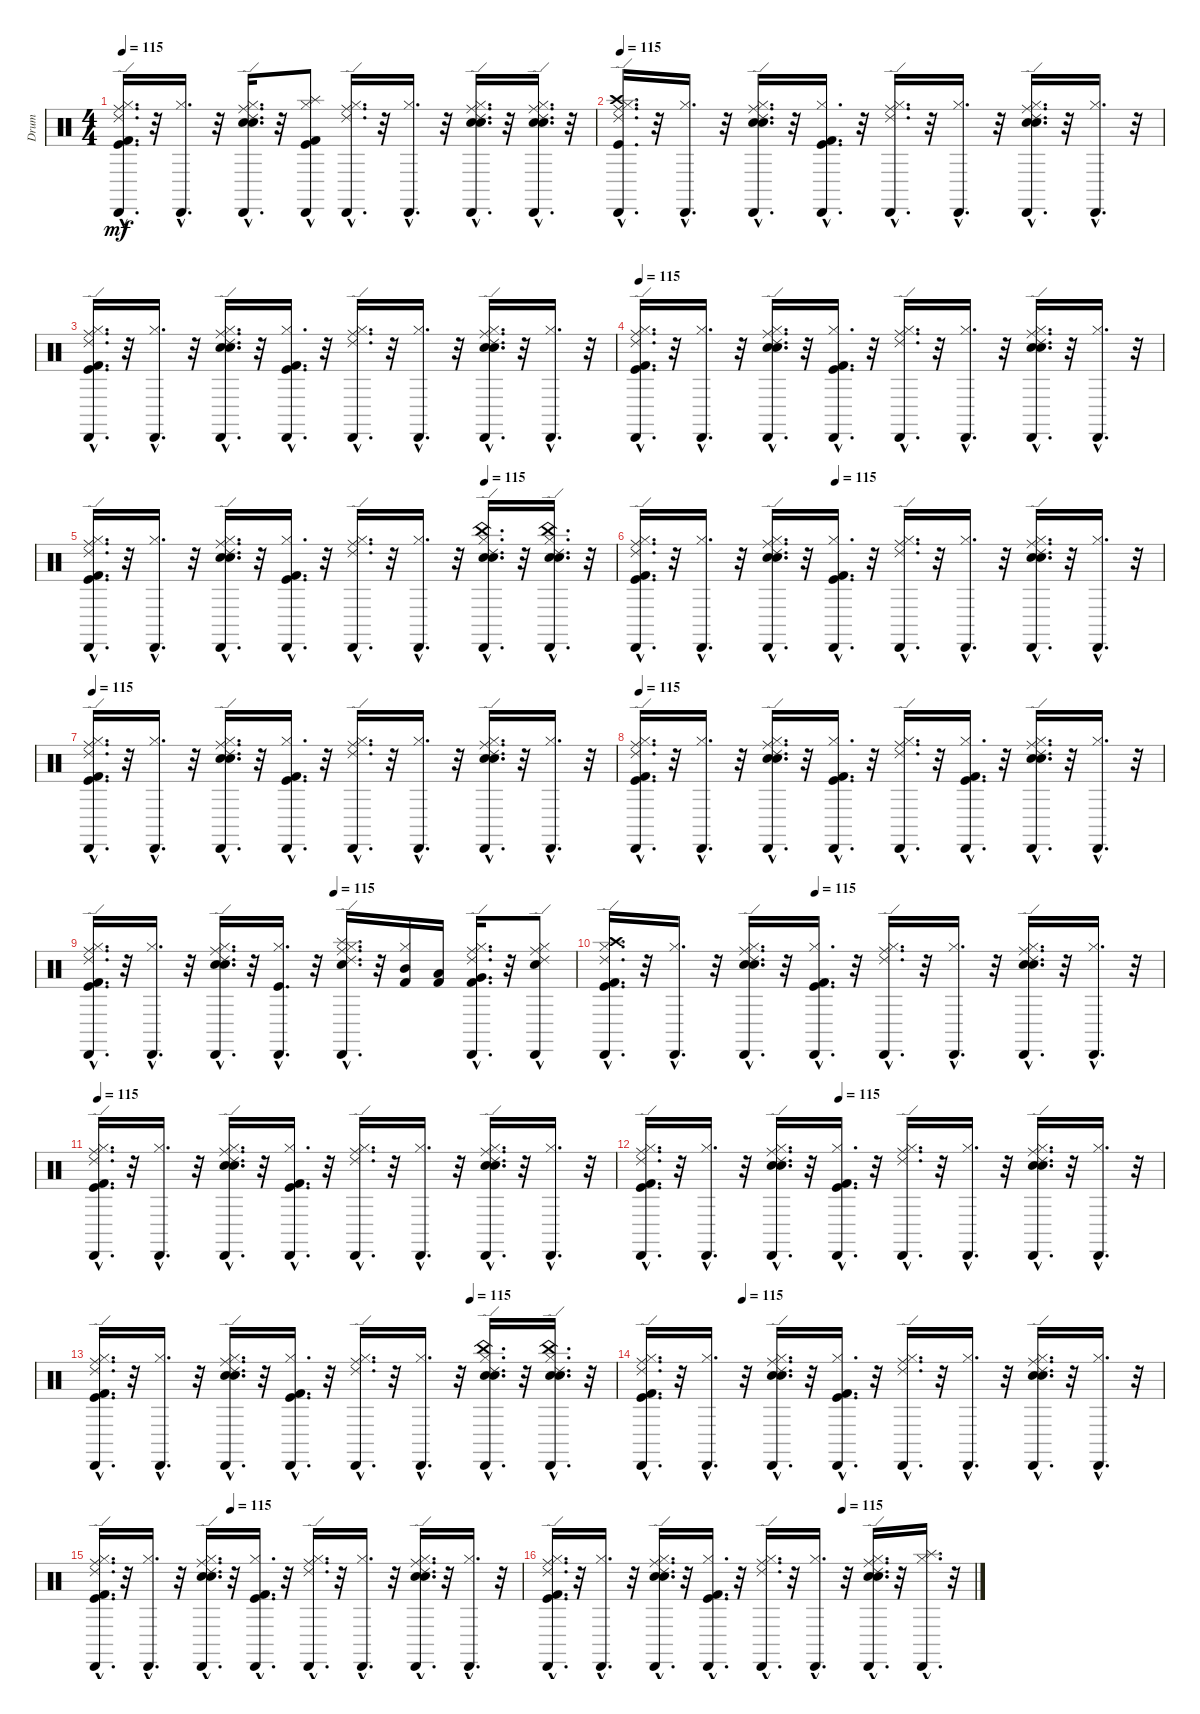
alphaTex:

\track ("Drum" "Drum") {instrument percussion}
\staff {score}
\articulation defaults
\ts (4 4)
\tempo 115
\clef neutral
\ks c
("Cabasa (hit)"{hac} "Kick (hit) 2"{hac} "Kick (hit)"{hac} "Hi-Hat (closed)"{hac} "Ride (edge) 2"{hac} "Ride (middle)"{hac}).16{d dy mf} r.32 ("Cabasa (hit)"{hac} "Hi-Hat (closed)"{hac}).16{d} r.32 ("Cabasa (hit)"{hac} "Electric Snare (hit)"{hac} "Snare (hit) 2"{hac} "Hi-Hat (closed)"{hac} "Ride (edge) 2"{hac} "Ride (middle)"{hac}).16{d} r.32 ("Cabasa (hit)"{hac} "Kick (hit) 2" "Kick (hit)"{hac} "Hi-Hat (closed)"{hac} "Splash (hit)").8 ("Cabasa (hit)"{hac} "Hi-Hat (closed)"{hac} "Ride (edge) 2"{hac} "Ride (middle)"{hac}).16{d} r.32 ("Cabasa (hit)"{hac} "Hi-Hat (closed)"{hac}).16{d} r.32 ("Cabasa (hit)"{hac} "Hi-Hat (closed)"{hac} "Electric Snare (hit)"{hac} "Snare (hit) 2"{hac} "Ride (edge) 2"{hac} "Ride (middle)"{hac}).16{d} r.32 ("Cabasa (hit)"{hac} "Hi-Hat (closed)"{hac} "Ride (middle)"{hac} "Ride (edge) 2"{hac} "Electric Snare (hit)"{hac} "Snare (hit) 2"{hac}).16{d} r.32 |
\tempo 115
("Crash high (hit)"{hac} "Kick (hit)"{hac} "Hi-Hat (closed)"{hac} "Ride (middle)"{hac} "Ride (edge) 2"{hac} "Cabasa (hit)"{hac}).16{d} r.32 ("Hi-Hat (closed)"{hac} "Cabasa (hit)"{hac}).16{d} r.32 ("Ride (middle)"{hac} "Ride (edge) 2"{hac} "Hi-Hat (closed)"{hac} "Snare (hit) 2"{hac} "Cabasa (hit)"{hac} "Electric Snare (hit)"{hac}).16{d} r.32 ("Hi-Hat (closed)"{hac} "Kick (hit) 2"{hac} "Cabasa (hit)"{hac} "Kick (hit)"{hac}).16{d} r.32 ("Ride (middle)"{hac} "Ride (edge) 2"{hac} "Hi-Hat (closed)"{hac} "Cabasa (hit)"{hac}).16{d} r.32 ("Hi-Hat (closed)"{hac} "Cabasa (hit)"{hac}).16{d} r.32 ("Snare (hit) 2"{hac} "Electric Snare (hit)"{hac} "Ride (middle)"{hac} "Ride (edge) 2"{hac} "Hi-Hat (closed)"{hac} "Cabasa (hit)"{hac}).16{d} r.32 ("Hi-Hat (closed)"{hac} "Cabasa (hit)"{hac}).16{d} r.32 |
("Cabasa (hit)"{hac} "Kick (hit)"{hac} "Ride (edge) 2"{hac} "Kick (hit) 2"{hac} "Ride (middle)"{hac} "Hi-Hat (closed)"{hac}).16{d} r.32 ("Hi-Hat (closed)"{hac} "Cabasa (hit)"{hac}).16{d} r.32 ("Ride (edge) 2"{hac} "Cabasa (hit)"{hac} "Ride (middle)"{hac} "Electric Snare (hit)"{hac} "Snare (hit) 2"{hac} "Hi-Hat (closed)"{hac}).16{d} r.32 ("Hi-Hat (closed)"{hac} "Kick (hit) 2"{hac} "Kick (hit)"{hac} "Cabasa (hit)"{hac}).16{d} r.32 ("Cabasa (hit)"{hac} "Hi-Hat (closed)"{hac} "Ride (edge) 2"{hac} "Ride (middle)"{hac}).16{d} r.32 ("Cabasa (hit)"{hac} "Hi-Hat (closed)"{hac}).16{d} r.32 ("Snare (hit) 2"{hac} "Ride (edge) 2"{hac} "Hi-Hat (closed)"{hac} "Ride (middle)"{hac} "Electric Snare (hit)"{hac} "Cabasa (hit)"{hac}).16{d} r.32 ("Hi-Hat (closed)"{hac} "Cabasa (hit)"{hac}).16{d} r.32 |
\tempo 115
("Kick (hit) 2"{hac} "Hi-Hat (closed)"{hac} "Ride (middle)"{hac} "Cabasa (hit)"{hac} "Kick (hit)"{hac} "Ride (edge) 2"{hac}).16{d} r.32 ("Cabasa (hit)"{hac} "Hi-Hat (closed)"{hac}).16{d} r.32 ("Ride (edge) 2"{hac} "Hi-Hat (closed)"{hac} "Ride (middle)"{hac} "Electric Snare (hit)"{hac} "Snare (hit) 2"{hac} "Cabasa (hit)"{hac}).16{d} r.32 ("Kick (hit)"{hac} "Cabasa (hit)"{hac} "Hi-Hat (closed)"{hac} "Kick (hit) 2"{hac}).16{d} r.32 ("Cabasa (hit)"{hac} "Ride (edge) 2"{hac} "Hi-Hat (closed)"{hac} "Ride (middle)"{hac}).16{d} r.32 ("Hi-Hat (closed)"{hac} "Cabasa (hit)"{hac}).16{d} r.32 ("Hi-Hat (closed)"{hac} "Cabasa (hit)"{hac} "Electric Snare (hit)"{hac} "Snare (hit) 2"{hac} "Ride (middle)"{hac} "Ride (edge) 2"{hac}).16{d} r.32 ("Cabasa (hit)"{hac} "Hi-Hat (closed)"{hac}).16{d} r.32 |
\tempo (115 0.75)
("Ride (middle)"{hac} "Kick (hit)"{hac} "Cabasa (hit)"{hac} "Hi-Hat (closed)"{hac} "Ride (edge) 2"{hac} "Kick (hit) 2"{hac}).16{d} r.32 ("Cabasa (hit)"{hac} "Hi-Hat (closed)"{hac}).16{d} r.32 ("Cabasa (hit)"{hac} "Ride (middle)"{hac} "Electric Snare (hit)"{hac} "Ride (edge) 2"{hac} "Snare (hit) 2"{hac} "Hi-Hat (closed)"{hac}).16{d} r.32 ("Cabasa (hit)"{hac} "Kick (hit)"{hac} "Hi-Hat (closed)"{hac} "Kick (hit) 2"{hac}).16{d} r.32 ("Cabasa (hit)"{hac} "Hi-Hat (closed)"{hac} "Ride (edge) 2"{hac} "Ride (middle)"{hac}).16{d} r.32 ("Cabasa (hit)"{hac} "Hi-Hat (closed)"{hac}).16{d} r.32 ("Electric Snare (hit)"{hac} "China (hit)"{hac} "Cabasa (hit)"{hac} "Snare (hit) 2"{hac} "Hi-Hat (closed)"{hac} "Ride (edge) 2"{hac}).16{d} r.32 ("Snare (hit) 2"{hac} "Cabasa (hit)"{hac} "Electric Snare (hit)"{hac} "China (hit)"{hac} "Hi-Hat (closed)"{hac} "Ride (edge) 2"{hac}).16{d} r.32 |
\tempo (115 0.375)
("Ride (middle)"{hac} "Ride (edge) 2"{hac} "Hi-Hat (closed)"{hac} "Kick (hit)"{hac} "Kick (hit) 2"{hac} "Cabasa (hit)"{hac}).16{d} r.32 ("Hi-Hat (closed)"{hac} "Cabasa (hit)"{hac}).16{d} r.32 ("Ride (middle)"{hac} "Ride (edge) 2"{hac} "Hi-Hat (closed)"{hac} "Snare (hit) 2"{hac} "Electric Snare (hit)"{hac} "Cabasa (hit)"{hac}).16{d} r.32 ("Hi-Hat (closed)"{hac} "Kick (hit)"{hac} "Kick (hit) 2"{hac} "Cabasa (hit)"{hac}).16{d} r.32 ("Ride (middle)"{hac} "Ride (edge) 2"{hac} "Hi-Hat (closed)"{hac} "Cabasa (hit)"{hac}).16{d} r.32 ("Hi-Hat (closed)"{hac} "Cabasa (hit)"{hac}).16{d} r.32 ("Ride (middle)"{hac} "Ride (edge) 2"{hac} "Snare (hit) 2"{hac} "Electric Snare (hit)"{hac} "Hi-Hat (closed)"{hac} "Cabasa (hit)"{hac}).16{d} r.32 ("Hi-Hat (closed)"{hac} "Cabasa (hit)"{hac}).16{d} r.32 |
\tempo 115
("Hi-Hat (closed)"{hac} "Kick (hit) 2"{hac} "Kick (hit)"{hac} "Ride (middle)"{hac} "Ride (edge) 2"{hac} "Cabasa (hit)"{hac}).16{d} r.32 ("Hi-Hat (closed)"{hac} "Cabasa (hit)"{hac}).16{d} r.32 ("Ride (middle)"{hac} "Electric Snare (hit)"{hac} "Hi-Hat (closed)"{hac} "Ride (edge) 2"{hac} "Snare (hit) 2"{hac} "Cabasa (hit)"{hac}).16{d} r.32 ("Kick (hit) 2"{hac} "Kick (hit)"{hac} "Hi-Hat (closed)"{hac} "Cabasa (hit)"{hac}).16{d} r.32 ("Hi-Hat (closed)"{hac} "Ride (middle)"{hac} "Ride (edge) 2"{hac} "Cabasa (hit)"{hac}).16{d} r.32 ("Hi-Hat (closed)"{hac} "Cabasa (hit)"{hac}).16{d} r.32 ("Ride (edge) 2"{hac} "Electric Snare (hit)"{hac} "Snare (hit) 2"{hac} "Ride (middle)"{hac} "Hi-Hat (closed)"{hac} "Cabasa (hit)"{hac}).16{d} r.32 ("Cabasa (hit)"{hac} "Hi-Hat (closed)"{hac}).16{d} r.32 |
\tempo 115
("Ride (middle)"{hac} "Ride (edge) 2"{hac} "Hi-Hat (closed)"{hac} "Kick (hit)"{hac} "Kick (hit) 2"{hac} "Cabasa (hit)"{hac}).16{d} r.32 ("Hi-Hat (closed)"{hac} "Cabasa (hit)"{hac}).16{d} r.32 ("Ride (middle)"{hac} "Ride (edge) 2"{hac} "Hi-Hat (closed)"{hac} "Snare (hit) 2"{hac} "Electric Snare (hit)"{hac} "Cabasa (hit)"{hac}).16{d} r.32 ("Hi-Hat (closed)"{hac} "Kick (hit)"{hac} "Kick (hit) 2"{hac} "Cabasa (hit)"{hac}).16{d} r.32 ("Ride (middle)"{hac} "Ride (edge) 2"{hac} "Hi-Hat (closed)"{hac} "Cabasa (hit)"{hac}).16{d} r.32 ("Hi-Hat (closed)"{hac} "Cabasa (hit)"{hac} "Kick (hit)"{hac} "Kick (hit) 2"{hac}).16{d} r.32 ("Ride (middle)"{hac} "Ride (edge) 2"{hac} "Snare (hit) 2"{hac} "Electric Snare (hit)"{hac} "Hi-Hat (closed)"{hac} "Cabasa (hit)"{hac}).16{d} r.32 ("Hi-Hat (closed)"{hac} "Cabasa (hit)"{hac}).16{d} r.32 |
\tempo (115 0.5)
("Ride (middle)"{hac} "Ride (edge) 2"{hac} "Hi-Hat (closed)"{hac} "Kick (hit)"{hac} "Kick (hit) 2"{hac} "Cabasa (hit)"{hac}).16{d} r.32 ("Hi-Hat (closed)"{hac} "Cabasa (hit)"{hac}).16{d} r.32 ("Ride (middle)"{hac} "Ride (edge) 2"{hac} "Hi-Hat (closed)"{hac} "Cabasa (hit)"{hac} "Snare (hit) 2"{hac} "Electric Snare (hit)"{hac}).16{d} r.32 ("Hi-Hat (closed)"{hac} "Cabasa (hit)"{hac} "Kick (hit)"{hac}).16{d} r.32 ("Ride (middle)"{hac} "Ride (edge) 2"{hac} "Hi-Hat (closed)"{hac} "Cabasa (hit)"{hac} "Snare (hit) 2"{hac} "Splash (hit)"{hac}).16{d} r.32 ("Mid Tom (hit)" "Hi-Hat (closed)" "Kick (hit) 2").16 ("Low Tom (hit)" "Kick (hit) 2").16 ("Ride (middle)"{hac} "Ride (edge) 2"{hac} "Hi-Hat (closed)"{hac} "Cabasa (hit)"{hac} "Very Low Tom (hit)"{hac} "Kick (hit) 2"{hac}).16{d} r.32 ("Snare (hit) 2"{hac} "Ride (edge) 2"{hac} "Ride (middle)"{hac} "Hi-Hat (closed)"{hac} "Cabasa (hit)"{hac}).8 |
\tempo (115 0.375)
("Cabasa (hit)"{hac} "Kick (hit) 2"{hac} "Kick (hit)"{hac} "Hi-Hat (closed)"{hac} "Crash high (hit)"{hac} "Ride (edge) 2"{hac}).16{d} r.32 ("Cabasa (hit)"{hac} "Hi-Hat (closed)"{hac}).16{d} r.32 ("Cabasa (hit)"{hac} "Electric Snare (hit)"{hac} "Snare (hit) 2"{hac} "Hi-Hat (closed)"{hac} "Ride (edge) 2"{hac} "Ride (middle)"{hac}).16{d} r.32 ("Cabasa (hit)"{hac} "Kick (hit) 2"{hac} "Kick (hit)"{hac} "Hi-Hat (closed)"{hac}).16{d} r.32 ("Cabasa (hit)"{hac} "Hi-Hat (closed)"{hac} "Ride (edge) 2"{hac} "Ride (middle)"{hac}).16{d} r.32 ("Cabasa (hit)"{hac} "Hi-Hat (closed)"{hac}).16{d} r.32 ("Cabasa (hit)"{hac} "Hi-Hat (closed)"{hac} "Electric Snare (hit)"{hac} "Snare (hit) 2"{hac} "Ride (edge) 2"{hac} "Ride (middle)"{hac}).16{d} r.32 ("Cabasa (hit)"{hac} "Hi-Hat (closed)"{hac}).16{d} r.32 |
\tempo 115
("Ride (middle)"{hac} "Ride (edge) 2"{hac} "Hi-Hat (closed)"{hac} "Kick (hit)"{hac} "Kick (hit) 2"{hac} "Cabasa (hit)"{hac}).16{d} r.32 ("Hi-Hat (closed)"{hac} "Cabasa (hit)"{hac}).16{d} r.32 ("Ride (middle)"{hac} "Ride (edge) 2"{hac} "Hi-Hat (closed)"{hac} "Snare (hit) 2"{hac} "Electric Snare (hit)"{hac} "Cabasa (hit)"{hac}).16{d} r.32 ("Hi-Hat (closed)"{hac} "Kick (hit)"{hac} "Kick (hit) 2"{hac} "Cabasa (hit)"{hac}).16{d} r.32 ("Ride (middle)"{hac} "Ride (edge) 2"{hac} "Hi-Hat (closed)"{hac} "Cabasa (hit)"{hac}).16{d} r.32 ("Hi-Hat (closed)"{hac} "Cabasa (hit)"{hac}).16{d} r.32 ("Ride (middle)"{hac} "Ride (edge) 2"{hac} "Snare (hit) 2"{hac} "Electric Snare (hit)"{hac} "Hi-Hat (closed)"{hac} "Cabasa (hit)"{hac}).16{d} r.32 ("Hi-Hat (closed)"{hac} "Cabasa (hit)"{hac}).16{d} r.32 |
\tempo (115 0.375)
("Cabasa (hit)"{hac} "Kick (hit) 2"{hac} "Kick (hit)"{hac} "Hi-Hat (closed)"{hac} "Ride (edge) 2"{hac} "Ride (middle)"{hac}).16{d} r.32 ("Cabasa (hit)"{hac} "Hi-Hat (closed)"{hac}).16{d} r.32 ("Cabasa (hit)"{hac} "Electric Snare (hit)"{hac} "Snare (hit) 2"{hac} "Hi-Hat (closed)"{hac} "Ride (edge) 2"{hac} "Ride (middle)"{hac}).16{d} r.32 ("Cabasa (hit)"{hac} "Kick (hit) 2"{hac} "Kick (hit)"{hac} "Hi-Hat (closed)"{hac}).16{d} r.32 ("Cabasa (hit)"{hac} "Hi-Hat (closed)"{hac} "Ride (edge) 2"{hac} "Ride (middle)"{hac}).16{d} r.32 ("Cabasa (hit)"{hac} "Hi-Hat (closed)"{hac}).16{d} r.32 ("Cabasa (hit)"{hac} "Hi-Hat (closed)"{hac} "Electric Snare (hit)"{hac} "Snare (hit) 2"{hac} "Ride (edge) 2"{hac} "Ride (middle)"{hac}).16{d} r.32 ("Cabasa (hit)"{hac} "Hi-Hat (closed)"{hac}).16{d} r.32 |
\tempo (115 0.71875)
("Cabasa (hit)"{hac} "Kick (hit) 2"{hac} "Kick (hit)"{hac} "Hi-Hat (closed)"{hac} "Ride (edge) 2"{hac} "Ride (middle)"{hac}).16{d} r.32 ("Cabasa (hit)"{hac} "Hi-Hat (closed)"{hac}).16{d} r.32 ("Cabasa (hit)"{hac} "Electric Snare (hit)"{hac} "Snare (hit) 2"{hac} "Hi-Hat (closed)"{hac} "Ride (edge) 2"{hac} "Ride (middle)"{hac}).16{d} r.32 ("Cabasa (hit)"{hac} "Kick (hit) 2"{hac} "Kick (hit)"{hac} "Hi-Hat (closed)"{hac}).16{d} r.32 ("Cabasa (hit)"{hac} "Hi-Hat (closed)"{hac} "Ride (edge) 2"{hac} "Ride (middle)"{hac}).16{d} r.32 ("Cabasa (hit)"{hac} "Hi-Hat (closed)"{hac}).16{d} r.32 ("Cabasa (hit)"{hac} "Hi-Hat (closed)"{hac} "Electric Snare (hit)"{hac} "Snare (hit) 2"{hac} "Ride (edge) 2"{hac} "China (hit)"{hac}).16{d} r.32 ("Cabasa (hit)"{hac} "Hi-Hat (closed)"{hac} "China (hit)"{hac} "Ride (edge) 2"{hac} "Electric Snare (hit)"{hac} "Snare (hit) 2"{hac}).16{d} r.32 |
\tempo (115 0.1875)
("Ride (middle)"{hac} "Ride (edge) 2"{hac} "Hi-Hat (closed)"{hac} "Kick (hit)"{hac} "Kick (hit) 2"{hac} "Cabasa (hit)"{hac}).16{d} r.32 ("Hi-Hat (closed)"{hac} "Cabasa (hit)"{hac}).16{d} r.32 ("Ride (middle)"{hac} "Ride (edge) 2"{hac} "Hi-Hat (closed)"{hac} "Snare (hit) 2"{hac} "Electric Snare (hit)"{hac} "Cabasa (hit)"{hac}).16{d} r.32 ("Hi-Hat (closed)"{hac} "Kick (hit)"{hac} "Kick (hit) 2"{hac} "Cabasa (hit)"{hac}).16{d} r.32 ("Ride (middle)"{hac} "Ride (edge) 2"{hac} "Hi-Hat (closed)"{hac} "Cabasa (hit)"{hac}).16{d} r.32 ("Hi-Hat (closed)"{hac} "Cabasa (hit)"{hac}).16{d} r.32 ("Ride (middle)"{hac} "Ride (edge) 2"{hac} "Snare (hit) 2"{hac} "Electric Snare (hit)"{hac} "Hi-Hat (closed)"{hac} "Cabasa (hit)"{hac}).16{d} r.32 ("Hi-Hat (closed)"{hac} "Cabasa (hit)"{hac}).16{d} r.32 |
\tempo (115 0.3125)
("Cabasa (hit)"{hac} "Kick (hit) 2"{hac} "Kick (hit)"{hac} "Hi-Hat (closed)"{hac} "Ride (edge) 2"{hac} "Ride (middle)"{hac}).16{d} r.32 ("Cabasa (hit)"{hac} "Hi-Hat (closed)"{hac}).16{d} r.32 ("Cabasa (hit)"{hac} "Electric Snare (hit)"{hac} "Snare (hit) 2"{hac} "Hi-Hat (closed)"{hac} "Ride (edge) 2"{hac} "Ride (middle)"{hac}).16{d} r.32 ("Cabasa (hit)"{hac} "Kick (hit) 2"{hac} "Kick (hit)"{hac} "Hi-Hat (closed)"{hac}).16{d} r.32 ("Cabasa (hit)"{hac} "Hi-Hat (closed)"{hac} "Ride (edge) 2"{hac} "Ride (middle)"{hac}).16{d} r.32 ("Cabasa (hit)"{hac} "Hi-Hat (closed)"{hac}).16{d} r.32 ("Cabasa (hit)"{hac} "Hi-Hat (closed)"{hac} "Electric Snare (hit)"{hac} "Snare (hit) 2"{hac} "Ride (edge) 2"{hac} "Ride (middle)"{hac}).16{d} r.32 ("Cabasa (hit)"{hac} "Hi-Hat (closed)"{hac}).16{d} r.32 |
\tempo (115 0.6875)
("Ride (middle)"{hac} "Ride (edge) 2"{hac} "Hi-Hat (closed)"{hac} "Kick (hit)"{hac} "Kick (hit) 2"{hac} "Cabasa (hit)"{hac}).16{d} r.32 ("Hi-Hat (closed)"{hac} "Cabasa (hit)"{hac}).16{d} r.32 ("Ride (middle)"{hac} "Ride (edge) 2"{hac} "Hi-Hat (closed)"{hac} "Snare (hit) 2"{hac} "Electric Snare (hit)"{hac} "Cabasa (hit)"{hac}).16{d} r.32 ("Hi-Hat (closed)"{hac} "Kick (hit)"{hac} "Kick (hit) 2"{hac} "Cabasa (hit)"{hac}).16{d} r.32 ("Ride (middle)"{hac} "Ride (edge) 2"{hac} "Hi-Hat (closed)"{hac} "Cabasa (hit)"{hac}).16{d} r.32 ("Hi-Hat (closed)"{hac} "Cabasa (hit)"{hac}).16{d} r.32 ("Ride (middle)"{hac} "Ride (edge) 2"{hac} "Snare (hit) 2"{hac} "Electric Snare (hit)"{hac} "Hi-Hat (closed)"{hac} "Cabasa (hit)"{hac}).16{d} r.32 ("Hi-Hat (closed)"{hac} "Cabasa (hit)"{hac} "Splash (hit)"{hac}).16{d} r.32
